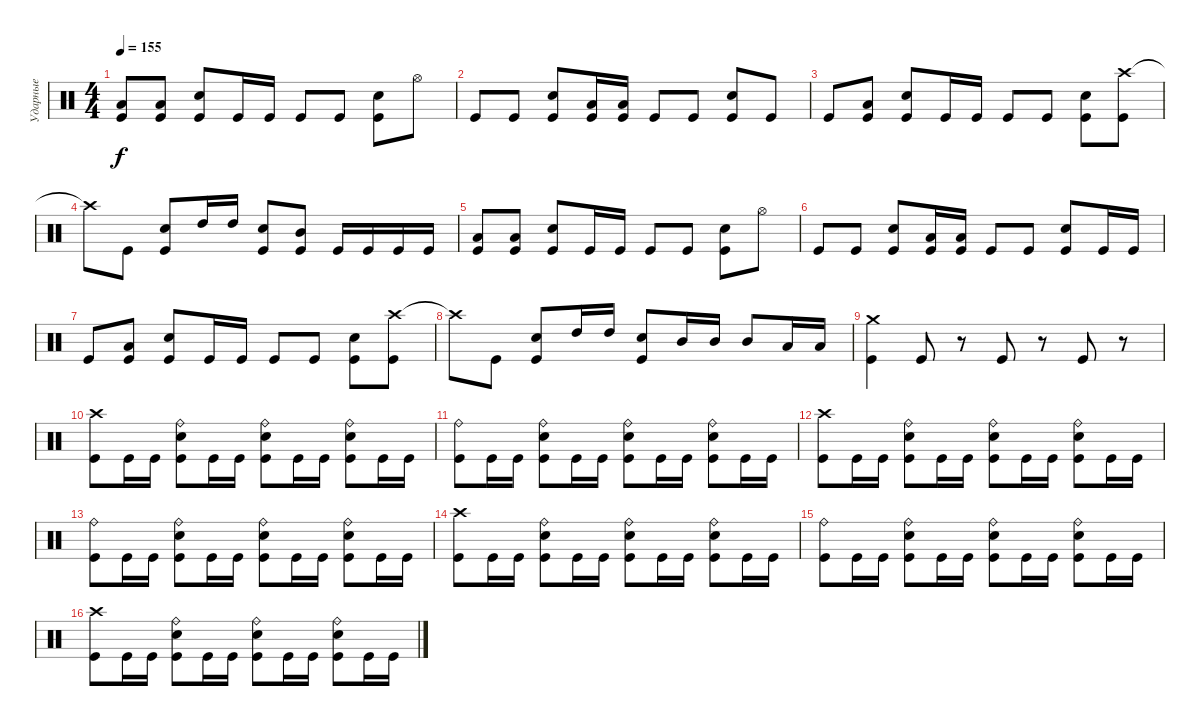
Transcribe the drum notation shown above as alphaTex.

\track ("Ударные" "Ударные") {instrument percussion}
\staff {score}
\articulation defaults
\ts (4 4)
\tempo 155
\clef neutral
\ks c
("Low Tom (hit)" "Kick (hit)").8{dy f} ("Low Tom (hit)" "Kick (hit)").8 ("Electric Snare (hit)" "Kick (hit)").8 "Kick (hit)".16 "Kick (hit)".16 "Kick (hit)".8 "Kick (hit)".8 ("Electric Snare (hit)" "Kick (hit)").8 "Hi-Hat (open)".8 |
"Kick (hit)".8 "Kick (hit)".8 ("Electric Snare (hit)" "Kick (hit)").8 ("Low Tom (hit)" "Kick (hit)").16 ("Low Tom (hit)" "Kick (hit)").16 "Kick (hit)".8 "Kick (hit)".8 ("Electric Snare (hit)" "Kick (hit)").8 "Kick (hit)".8 |
"Kick (hit)".8 ("Low Tom (hit)" "Kick (hit)").8 ("Electric Snare (hit)" "Kick (hit)").8 "Kick (hit)".16 "Kick (hit)".16 "Kick (hit)".8 "Kick (hit)".8 ("Electric Snare (hit)" "Kick (hit)").8 ("Crash high (hit)" "Kick (hit)").8 |
"Crash high (hit)"{t}.8 "Kick (hit)".8 ("Electric Snare (hit)" "Kick (hit)").8 "High Tom (hit)".16 "High Tom (hit)".16 ("Electric Snare (hit)" "Kick (hit)").8 ("Mid Tom (hit)" "Kick (hit)").8 "Kick (hit)".16 "Kick (hit)".16 "Kick (hit)".16 "Kick (hit)".16 |
("Low Tom (hit)" "Kick (hit)").8 ("Low Tom (hit)" "Kick (hit)").8 ("Electric Snare (hit)" "Kick (hit)").8 "Kick (hit)".16 "Kick (hit)".16 "Kick (hit)".8 "Kick (hit)".8 ("Electric Snare (hit)" "Kick (hit)").8 "Hi-Hat (open)".8 |
"Kick (hit)".8 "Kick (hit)".8 ("Electric Snare (hit)" "Kick (hit)").8 ("Low Tom (hit)" "Kick (hit)").16 ("Low Tom (hit)" "Kick (hit)").16 "Kick (hit)".8 "Kick (hit)".8 ("Electric Snare (hit)" "Kick (hit)").8 "Kick (hit)".16 "Kick (hit)".16 |
"Kick (hit)".8 ("Low Tom (hit)" "Kick (hit)").8 ("Electric Snare (hit)" "Kick (hit)").8 "Kick (hit)".16 "Kick (hit)".16 "Kick (hit)".8 "Kick (hit)".8 ("Electric Snare (hit)" "Kick (hit)").8 ("Crash high (hit)" "Kick (hit)").8 |
"Crash high (hit)"{t}.8 "Kick (hit)".8 ("Electric Snare (hit)" "Kick (hit)").8 "High Tom (hit)".16 "High Tom (hit)".16 ("Electric Snare (hit)" "Kick (hit)").8 "Mid Tom (hit)".16 "Mid Tom (hit)".16 "Mid Tom (hit)".8 "Low Tom (hit)".16 "Low Tom (hit)".16 |
("Crash medium (hit)" "Kick (hit)").4 "Kick (hit)".8 r.8 "Kick (hit)".8 r.8 "Kick (hit)".8 r.8 |
("Crash high (hit)" "Kick (hit)").8 "Kick (hit)".16 "Kick (hit)".16 ("Ride (bell)" "Electric Snare (hit)" "Kick (hit)").8 "Kick (hit)".16 "Kick (hit)".16 ("Ride (bell)" "Electric Snare (hit)" "Kick (hit)").8 "Kick (hit)".16 "Kick (hit)".16 ("Ride (bell)" "Electric Snare (hit)" "Kick (hit)").8 "Kick (hit)".16 "Kick (hit)".16 |
("Ride (bell)" "Kick (hit)").8 "Kick (hit)".16 "Kick (hit)".16 ("Ride (bell)" "Electric Snare (hit)" "Kick (hit)").8 "Kick (hit)".16 "Kick (hit)".16 ("Ride (bell)" "Electric Snare (hit)" "Kick (hit)").8 "Kick (hit)".16 "Kick (hit)".16 ("Ride (bell)" "Electric Snare (hit)" "Kick (hit)").8 "Kick (hit)".16 "Kick (hit)".16 |
("Crash high (hit)" "Kick (hit)").8 "Kick (hit)".16 "Kick (hit)".16 ("Ride (bell)" "Electric Snare (hit)" "Kick (hit)").8 "Kick (hit)".16 "Kick (hit)".16 ("Ride (bell)" "Electric Snare (hit)" "Kick (hit)").8 "Kick (hit)".16 "Kick (hit)".16 ("Ride (bell)" "Electric Snare (hit)" "Kick (hit)").8 "Kick (hit)".16 "Kick (hit)".16 |
("Ride (bell)" "Kick (hit)").8 "Kick (hit)".16 "Kick (hit)".16 ("Ride (bell)" "Electric Snare (hit)" "Kick (hit)").8 "Kick (hit)".16 "Kick (hit)".16 ("Ride (bell)" "Electric Snare (hit)" "Kick (hit)").8 "Kick (hit)".16 "Kick (hit)".16 ("Ride (bell)" "Electric Snare (hit)" "Kick (hit)").8 "Kick (hit)".16 "Kick (hit)".16 |
("Crash high (hit)" "Kick (hit)").8 "Kick (hit)".16 "Kick (hit)".16 ("Ride (bell)" "Electric Snare (hit)" "Kick (hit)").8 "Kick (hit)".16 "Kick (hit)".16 ("Ride (bell)" "Electric Snare (hit)" "Kick (hit)").8 "Kick (hit)".16 "Kick (hit)".16 ("Ride (bell)" "Electric Snare (hit)" "Kick (hit)").8 "Kick (hit)".16 "Kick (hit)".16 |
("Ride (bell)" "Kick (hit)").8 "Kick (hit)".16 "Kick (hit)".16 ("Ride (bell)" "Electric Snare (hit)" "Kick (hit)").8 "Kick (hit)".16 "Kick (hit)".16 ("Ride (bell)" "Electric Snare (hit)" "Kick (hit)").8 "Kick (hit)".16 "Kick (hit)".16 ("Ride (bell)" "Electric Snare (hit)" "Kick (hit)").8 "Kick (hit)".16 "Kick (hit)".16 |
("Crash high (hit)" "Kick (hit)").8 "Kick (hit)".16 "Kick (hit)".16 ("Ride (bell)" "Electric Snare (hit)" "Kick (hit)").8 "Kick (hit)".16 "Kick (hit)".16 ("Ride (bell)" "Electric Snare (hit)" "Kick (hit)").8 "Kick (hit)".16 "Kick (hit)".16 ("Ride (bell)" "Electric Snare (hit)" "Kick (hit)").8 "Kick (hit)".16 "Kick (hit)".16
